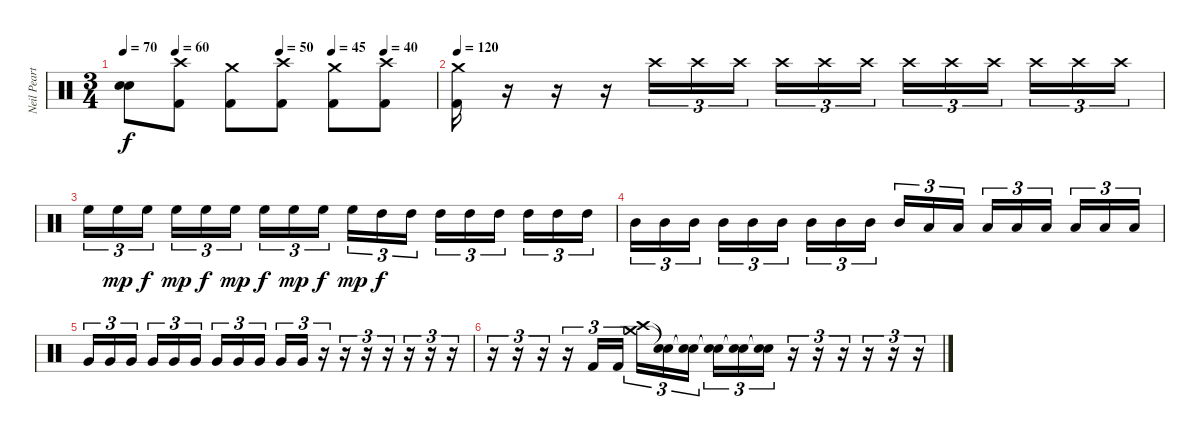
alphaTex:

\track ("Neil Peart" "Neil Peart") {instrument percussion}
\staff {score}
\articulation defaults
\ts (3 4)
\tempo 70
\tempo (60 0.16666666666666666)
\tempo (50 0.5)
\tempo (45 0.6666666666666666)
\tempo (40 0.8333333333333334)
\clef neutral
\ks c
("Snare (hit) 2" "Snare (hit) 2").8{dy f} ("Crash high (hit)" "Kick (hit) 2").8 ("Crash medium (hit)" "Kick (hit) 2").8 ("Crash high (hit)" "Kick (hit) 2").8 ("Crash medium (hit)" "Kick (hit) 2").8 ("Crash high (hit)" "Kick (hit) 2").8 |
\tempo 120
("Crash medium (hit)" "Kick (hit) 2").16 r.16 r.16 r.16 "Crash high (hit)".16{tu (3 2)} "Crash high (hit)".16{tu (3 2)} "Crash high (hit)".16{tu (3 2) beam splitsecondary} "Crash high (hit)".16{tu (3 2)} "Crash high (hit)".16{tu (3 2)} "Crash high (hit)".16{tu (3 2)} "Crash high (hit)".16{tu (3 2)} "Crash high (hit)".16{tu (3 2)} "Crash high (hit)".16{tu (3 2) beam splitsecondary} "Crash high (hit)".16{tu (3 2)} "Crash high (hit)".16{tu (3 2)} "Crash high (hit)".16{tu (3 2)} |
"High Floor Tom (hit)".16{tu (3 2)} "High Floor Tom (hit)".16{tu (3 2) dy mp} "High Floor Tom (hit)".16{tu (3 2) dy f beam splitsecondary} "High Floor Tom (hit)".16{tu (3 2) dy mp} "High Floor Tom (hit)".16{tu (3 2) dy f} "High Floor Tom (hit)".16{tu (3 2) dy mp} "High Floor Tom (hit)".16{tu (3 2) dy f} "High Floor Tom (hit)".16{tu (3 2) dy mp} "High Floor Tom (hit)".16{tu (3 2) dy f beam splitsecondary} "High Floor Tom (hit)".16{tu (3 2) dy mp} "High Tom (hit)".16{tu (3 2) dy f} "High Tom (hit)".16{tu (3 2)} "High Tom (hit)".16{tu (3 2)} "High Tom (hit)".16{tu (3 2)} "High Tom (hit)".16{tu (3 2) beam splitsecondary} "High Tom (hit)".16{tu (3 2)} "High Tom (hit)".16{tu (3 2)} "High Tom (hit)".16{tu (3 2)} |
"Mid Tom (hit)".16{tu (3 2)} "Mid Tom (hit)".16{tu (3 2)} "Mid Tom (hit)".16{tu (3 2) beam splitsecondary} "Mid Tom (hit)".16{tu (3 2)} "Mid Tom (hit)".16{tu (3 2)} "Mid Tom (hit)".16{tu (3 2)} "Mid Tom (hit)".16{tu (3 2)} "Mid Tom (hit)".16{tu (3 2)} "Mid Tom (hit)".16{tu (3 2) beam splitsecondary} "Mid Tom (hit)".16{tu (3 2)} "Low Tom (hit)".16{tu (3 2)} "Low Tom (hit)".16{tu (3 2)} "Low Tom (hit)".16{tu (3 2)} "Low Tom (hit)".16{tu (3 2)} "Low Tom (hit)".16{tu (3 2) beam splitsecondary} "Low Tom (hit)".16{tu (3 2)} "Low Tom (hit)".16{tu (3 2)} "Low Tom (hit)".16{tu (3 2)} |
"Very Low Tom (hit)".16{tu (3 2)} "Very Low Tom (hit)".16{tu (3 2)} "Very Low Tom (hit)".16{tu (3 2) beam splitsecondary} "Very Low Tom (hit)".16{tu (3 2)} "Very Low Tom (hit)".16{tu (3 2)} "Very Low Tom (hit)".16{tu (3 2)} "Very Low Tom (hit)".16{tu (3 2)} "Very Low Tom (hit)".16{tu (3 2)} "Very Low Tom (hit)".16{tu (3 2) beam splitsecondary} "Very Low Tom (hit)".16{tu (3 2)} "Very Low Tom (hit)".16{tu (3 2)} r.16{tu (3 2)} r.16{tu (3 2)} r.16{tu (3 2)} r.16{tu (3 2)} r.16{tu (3 2)} r.16{tu (3 2)} r.16{tu (3 2)} |
r.16{tu (3 2)} r.16{tu (3 2)} r.16{tu (3 2)} r.16{tu (3 2)} "Kick (hit) 2".16{tu (3 2)} "Kick (hit) 2".16{tu (3 2)} ("Crash high (hit)" "Crash medium (hit)").16{tu (3 2)} ("Snare (hit)"{t} "Snare (hit)"{t}).16{tu (3 2)} ("Snare (hit)"{t} "Snare (hit)"{t}).16{tu (3 2) beam splitsecondary} ("Snare (hit)"{t} "Snare (hit)"{t}).16{tu (3 2)} ("Snare (hit)"{t} "Snare (hit)"{t}).16{tu (3 2)} ("Snare (hit)"{t} "Snare (hit)"{t}).16{tu (3 2)} r.16{tu (3 2)} r.16{tu (3 2)} r.16{tu (3 2)} r.16{tu (3 2)} r.16{tu (3 2)} r.16{tu (3 2)}
